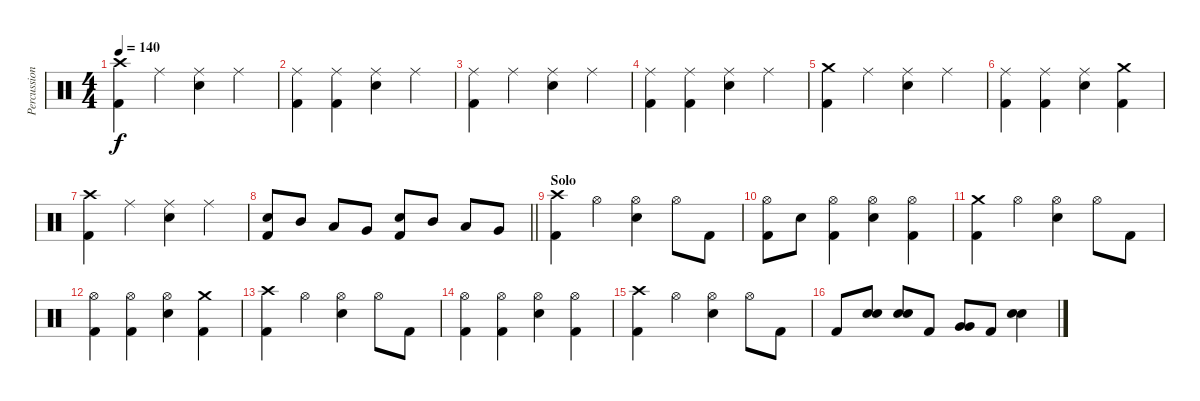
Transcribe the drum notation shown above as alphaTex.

\track ("Percussion" "Percussion") {instrument percussion}
\staff {score}
\articulation defaults
\ts (4 4)
\tempo 140
\clef neutral
\ks c
("Kick (hit) 2" "Crash high (hit)").4{dy f} "Ride (middle)".4 ("Snare (hit) 2" "Ride (middle)").4 "Ride (middle)".4 |
("Kick (hit) 2" "Ride (middle)").4 ("Kick (hit) 2" "Ride (middle)").4 ("Snare (hit) 2" "Ride (middle)").4 "Ride (middle)".4 |
("Kick (hit) 2" "Ride (middle)").4 "Ride (middle)".4 ("Snare (hit) 2" "Ride (middle)").4 "Ride (middle)".4 |
("Kick (hit) 2" "Ride (middle)").4 ("Kick (hit) 2" "Ride (middle)").4 ("Snare (hit) 2" "Ride (middle)").4 "Ride (middle)".4 |
("Kick (hit) 2" "Crash medium (hit)").4 "Ride (middle)".4 ("Snare (hit) 2" "Ride (middle)").4 "Ride (middle)".4 |
("Kick (hit) 2" "Ride (middle)").4 ("Kick (hit) 2" "Ride (middle)").4 ("Snare (hit) 2" "Ride (middle)").4 ("Kick (hit) 2" "Crash medium (hit)").4 |
("Kick (hit) 2" "Crash high (hit)").4 "Ride (middle)".4 ("Snare (hit) 2" "Ride (middle)").4 "Ride (middle)".4 |
\barLineRight lightlight
("Kick (hit) 2" "Snare (hit) 2").8 "Mid Tom (hit)".8 "Low Tom (hit)".8 "Very Low Tom (hit)".8 ("Kick (hit) 2" "Snare (hit) 2").8 "Mid Tom (hit)".8 "Low Tom (hit)".8 "Very Low Tom (hit)".8 |
\section ("" "Solo")
("Kick (hit) 2" "Crash high (hit)").4 "Hi-Hat (open)".4 ("Snare (hit) 2" "Hi-Hat (open)").4 "Hi-Hat (open)".8 "Kick (hit) 2".8 |
("Kick (hit) 2" "Hi-Hat (open)").8 "Snare (hit) 2".8 ("Kick (hit) 2" "Hi-Hat (open)").4 ("Snare (hit) 2" "Hi-Hat (open)").4 ("Kick (hit) 2" "Hi-Hat (open)").4 |
("Kick (hit) 2" "Crash medium (hit)").4 "Hi-Hat (open)".4 ("Snare (hit) 2" "Hi-Hat (open)").4 "Hi-Hat (open)".8 "Kick (hit) 2".8 |
("Kick (hit) 2" "Hi-Hat (open)").4 ("Kick (hit) 2" "Hi-Hat (open)").4 ("Snare (hit) 2" "Hi-Hat (open)").4 ("Kick (hit) 2" "Crash medium (hit)").4 |
("Kick (hit) 2" "Crash high (hit)").4 "Hi-Hat (open)".4 ("Snare (hit) 2" "Hi-Hat (open)").4 "Hi-Hat (open)".8 "Kick (hit) 2".8 |
("Kick (hit) 2" "Hi-Hat (open)").4 ("Kick (hit) 2" "Hi-Hat (open)").4 ("Snare (hit) 2" "Hi-Hat (open)").4 ("Kick (hit) 2" "Hi-Hat (open)").4 |
("Kick (hit) 2" "Crash high (hit)").4 "Hi-Hat (open)".4 ("Snare (hit) 2" "Hi-Hat (open)").4 "Hi-Hat (open)".8 "Kick (hit) 2".8 |
"Kick (hit) 2".8 ("Snare (hit) 2" "Snare (hit) 2").8 ("Snare (hit) 2" "Snare (hit) 2").8 "Kick (hit) 2".8 ("Very Low Tom (hit)" "Very Low Tom (hit)").8 "Kick (hit) 2".8 ("Snare (hit) 2" "Snare (hit) 2").4
